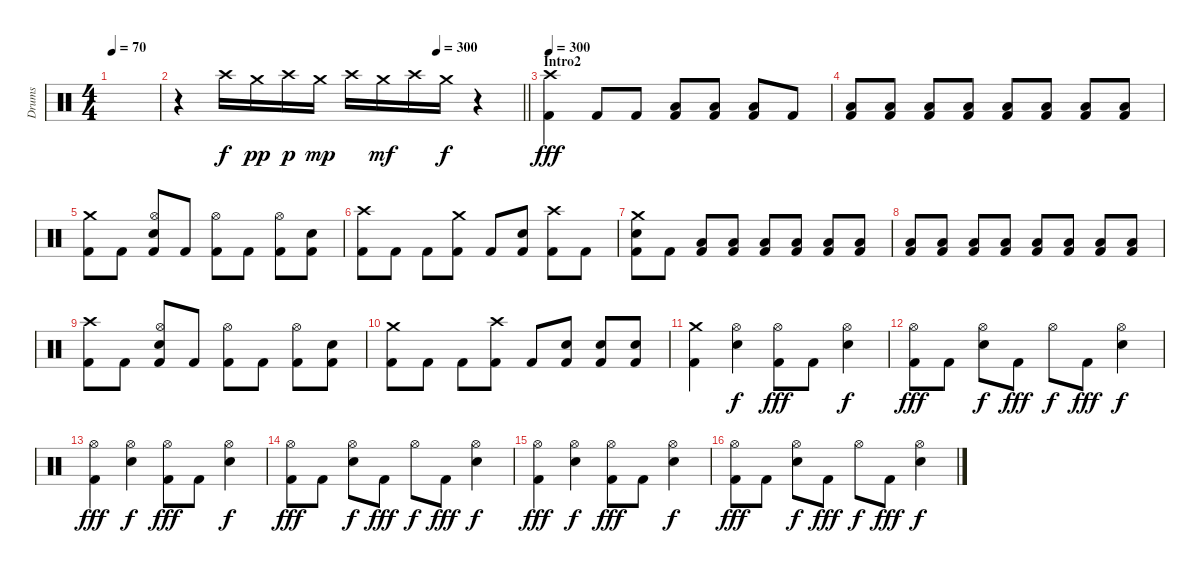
\track ("Drums" "Drums") {instrument percussion}
\staff {score}
\articulation defaults
\ts (4 4)
\tempo 70
\clef neutral
\ks c
|
\tempo (300 0.75)
\barLineRight lightlight
r.4 "Crash high (hit)".16 "Crash medium (hit)".16{dy pp} "Crash high (hit)".16{dy p} "Crash medium (hit)".16{dy mp} "Crash high (hit)".16 "Crash medium (hit)".16{dy mf} "Crash high (hit)".16 "Crash medium (hit)".16{dy f} r.4 |
\section ("" "Intro2")
\tempo 300
("Crash high (hit)" "Kick (hit) 2").4{dy fff} "Kick (hit) 2".8 "Kick (hit) 2".8 ("Low Floor Tom (hit)" "Kick (hit) 2").8 ("Low Floor Tom (hit)" "Kick (hit) 2").8 ("Low Floor Tom (hit)" "Kick (hit) 2").8 "Kick (hit) 2".8 |
("Low Floor Tom (hit)" "Kick (hit) 2").8 ("Low Floor Tom (hit)" "Kick (hit) 2").8 ("Low Floor Tom (hit)" "Kick (hit) 2").8 ("Low Floor Tom (hit)" "Kick (hit) 2").8 ("Low Floor Tom (hit)" "Kick (hit) 2").8 ("Low Floor Tom (hit)" "Kick (hit) 2").8 ("Low Floor Tom (hit)" "Kick (hit) 2").8 ("Low Floor Tom (hit)" "Kick (hit) 2").8 |
("Crash medium (hit)" "Kick (hit) 2").8 "Kick (hit) 2".8 ("Hi-Hat (open)" "Snare (hit) 2" "Kick (hit) 2").8 "Kick (hit) 2".8 ("Hi-Hat (open)" "Kick (hit) 2").8 "Kick (hit) 2".8 ("Hi-Hat (open)" "Kick (hit) 2").8 ("Snare (hit) 2" "Kick (hit) 2").8 |
("Crash high (hit)" "Kick (hit) 2").8 "Kick (hit) 2".8 "Kick (hit) 2".8 ("Crash medium (hit)" "Kick (hit) 2").8 "Kick (hit) 2".8 ("Snare (hit) 2" "Kick (hit) 2").8 ("Crash high (hit)" "Kick (hit) 2").8 "Kick (hit) 2".8 |
("Crash medium (hit)" "Snare (hit) 2" "Kick (hit) 2").8 "Kick (hit) 2".8 ("Low Floor Tom (hit)" "Kick (hit) 2").8 ("Low Floor Tom (hit)" "Kick (hit) 2").8 ("Low Floor Tom (hit)" "Kick (hit) 2").8 ("Low Floor Tom (hit)" "Kick (hit) 2").8 ("Low Floor Tom (hit)" "Kick (hit) 2").8 ("Low Floor Tom (hit)" "Kick (hit) 2").8 |
("Low Floor Tom (hit)" "Kick (hit) 2").8 ("Low Floor Tom (hit)" "Kick (hit) 2").8 ("Low Floor Tom (hit)" "Kick (hit) 2").8 ("Low Floor Tom (hit)" "Kick (hit) 2").8 ("Low Floor Tom (hit)" "Kick (hit) 2").8 ("Low Floor Tom (hit)" "Kick (hit) 2").8 ("Low Floor Tom (hit)" "Kick (hit) 2").8 ("Low Floor Tom (hit)" "Kick (hit) 2").8 |
("Crash high (hit)" "Kick (hit) 2").8 "Kick (hit) 2".8 ("Hi-Hat (open)" "Snare (hit) 2" "Kick (hit) 2").8 "Kick (hit) 2".8 ("Hi-Hat (open)" "Kick (hit) 2").8 "Kick (hit) 2".8 ("Hi-Hat (open)" "Kick (hit) 2").8 ("Snare (hit) 2" "Kick (hit) 2").8 |
("Crash medium (hit)" "Kick (hit) 2").8 "Kick (hit) 2".8 "Kick (hit) 2".8 ("Crash high (hit)" "Kick (hit) 2").8 "Kick (hit) 2".8 ("Snare (hit) 2" "Kick (hit) 2").8 ("Snare (hit) 2" "Kick (hit) 2").8 ("Snare (hit) 2" "Kick (hit) 2").8 |
("Crash medium (hit)" "Kick (hit) 2").4 ("Hi-Hat (open)" "Snare (hit) 2").4{dy f} ("Hi-Hat (open)" "Kick (hit) 2").8{dy fff} "Kick (hit) 2".8 ("Hi-Hat (open)" "Snare (hit) 2").4{dy f} |
("Hi-Hat (open)" "Kick (hit) 2").8{dy fff} "Kick (hit) 2".8 ("Hi-Hat (open)" "Snare (hit) 2").8{dy f} "Kick (hit) 2".8{dy fff} "Hi-Hat (open)".8{dy f} "Kick (hit) 2".8{dy fff} ("Hi-Hat (open)" "Snare (hit) 2").4{dy f} |
("Hi-Hat (open)" "Kick (hit) 2").4{dy fff} ("Hi-Hat (open)" "Snare (hit) 2").4{dy f} ("Hi-Hat (open)" "Kick (hit) 2").8{dy fff} "Kick (hit) 2".8 ("Hi-Hat (open)" "Snare (hit) 2").4{dy f} |
("Hi-Hat (open)" "Kick (hit) 2").8{dy fff} "Kick (hit) 2".8 ("Hi-Hat (open)" "Snare (hit) 2").8{dy f} "Kick (hit) 2".8{dy fff} "Hi-Hat (open)".8{dy f} "Kick (hit) 2".8{dy fff} ("Hi-Hat (open)" "Snare (hit) 2").4{dy f} |
("Hi-Hat (open)" "Kick (hit) 2").4{dy fff} ("Hi-Hat (open)" "Snare (hit) 2").4{dy f} ("Hi-Hat (open)" "Kick (hit) 2").8{dy fff} "Kick (hit) 2".8 ("Hi-Hat (open)" "Snare (hit) 2").4{dy f} |
("Hi-Hat (open)" "Kick (hit) 2").8{dy fff} "Kick (hit) 2".8 ("Hi-Hat (open)" "Snare (hit) 2").8{dy f} "Kick (hit) 2".8{dy fff} "Hi-Hat (open)".8{dy f} "Kick (hit) 2".8{dy fff} ("Hi-Hat (open)" "Snare (hit) 2").4{dy f}
